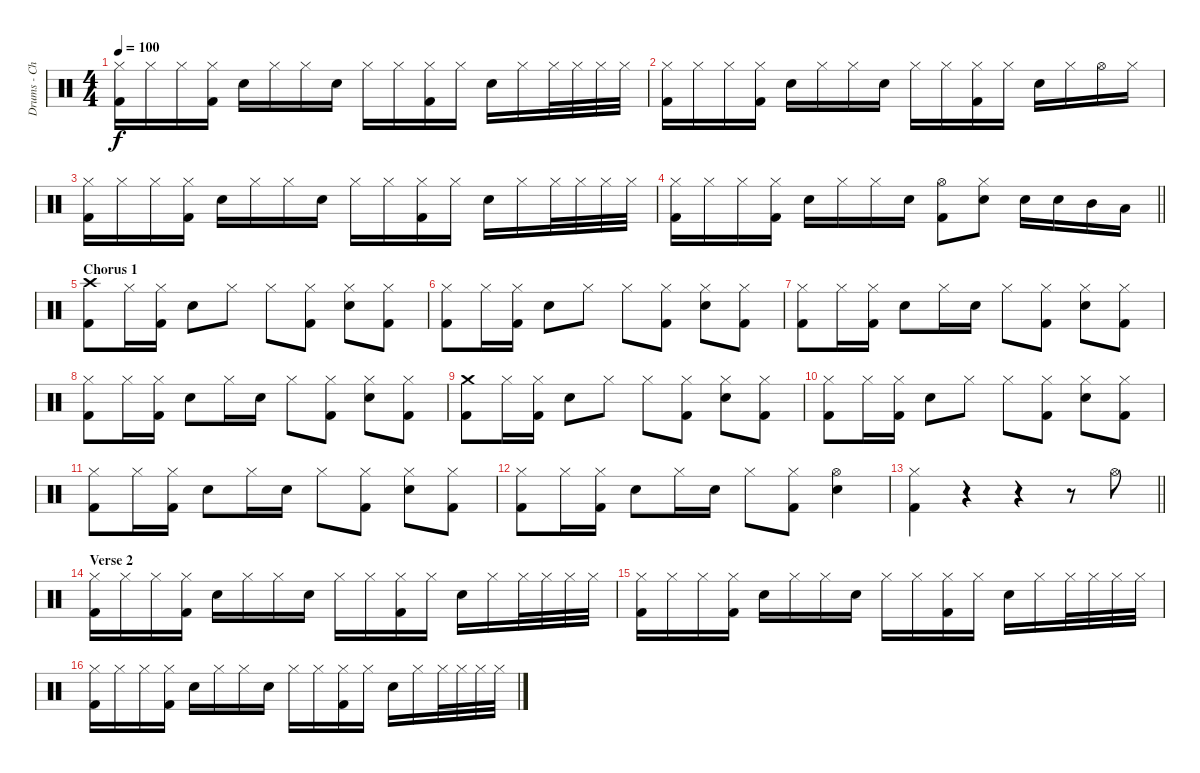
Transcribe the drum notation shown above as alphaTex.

\track ("Drums - Chad" "Drums - Ch") {instrument percussion}
\staff {score}
\articulation defaults
\ts (4 4)
\tempo 100
\clef neutral
\ks c
("Hi-Hat (closed)" "Kick (hit) 2").16{dy f} "Hi-Hat (closed)".16 "Hi-Hat (closed)".16 ("Hi-Hat (closed)" "Kick (hit) 2").16 "Electric Snare (hit)".16 "Hi-Hat (closed)".16 "Hi-Hat (closed)".16 "Electric Snare (hit)".16 "Hi-Hat (closed)".16 "Hi-Hat (closed)".16 ("Hi-Hat (closed)" "Kick (hit) 2").16 "Hi-Hat (closed)".16 "Electric Snare (hit)".16 "Hi-Hat (closed)".16 "Hi-Hat (closed)".32 "Hi-Hat (closed)".32 "Hi-Hat (closed)".32 "Hi-Hat (closed)".32 |
("Hi-Hat (closed)" "Kick (hit) 2").16 "Hi-Hat (closed)".16 "Hi-Hat (closed)".16 ("Hi-Hat (closed)" "Kick (hit) 2").16 "Electric Snare (hit)".16 "Hi-Hat (closed)".16 "Hi-Hat (closed)".16 "Electric Snare (hit)".16 "Hi-Hat (closed)".16 "Hi-Hat (closed)".16 ("Hi-Hat (closed)" "Kick (hit) 2").16 "Hi-Hat (closed)".16 "Electric Snare (hit)".16 "Hi-Hat (closed)".16 "Hi-Hat (open)".16 "Hi-Hat (closed)".16 |
("Hi-Hat (closed)" "Kick (hit) 2").16 "Hi-Hat (closed)".16 "Hi-Hat (closed)".16 ("Hi-Hat (closed)" "Kick (hit) 2").16 "Electric Snare (hit)".16 "Hi-Hat (closed)".16 "Hi-Hat (closed)".16 "Electric Snare (hit)".16 "Hi-Hat (closed)".16 "Hi-Hat (closed)".16 ("Hi-Hat (closed)" "Kick (hit) 2").16 "Hi-Hat (closed)".16 "Electric Snare (hit)".16 "Hi-Hat (closed)".16 "Hi-Hat (closed)".32 "Hi-Hat (closed)".32 "Hi-Hat (closed)".32 "Hi-Hat (closed)".32 |
\barLineRight lightlight
("Hi-Hat (closed)" "Kick (hit) 2").16 "Hi-Hat (closed)".16 "Hi-Hat (closed)".16 ("Hi-Hat (closed)" "Kick (hit) 2").16 "Electric Snare (hit)".16 "Hi-Hat (closed)".16 "Hi-Hat (closed)".16 "Electric Snare (hit)".16 ("Hi-Hat (open)" "Kick (hit) 2").8 ("Hi-Hat (closed)" "Electric Snare (hit)").8 "Electric Snare (hit)".16 "Electric Snare (hit)".16 "Mid Tom (hit)".16 "Low Tom (hit)".16 |
\section ("" "Chorus 1")
("Crash high (hit)" "Kick (hit) 2").8 "Hi-Hat (closed)".16 ("Hi-Hat (closed)" "Kick (hit) 2").16 "Electric Snare (hit)".8 "Hi-Hat (closed)".8 "Hi-Hat (closed)".8 ("Hi-Hat (closed)" "Kick (hit) 2").8 ("Hi-Hat (closed)" "Electric Snare (hit)").8 ("Hi-Hat (closed)" "Kick (hit) 2").8 |
("Hi-Hat (closed)" "Kick (hit) 2").8 "Hi-Hat (closed)".16 ("Hi-Hat (closed)" "Kick (hit) 2").16 "Electric Snare (hit)".8 "Hi-Hat (closed)".8 "Hi-Hat (closed)".8 ("Hi-Hat (closed)" "Kick (hit) 2").8 ("Hi-Hat (closed)" "Electric Snare (hit)").8 ("Hi-Hat (closed)" "Kick (hit) 2").8 |
("Hi-Hat (closed)" "Kick (hit) 2").8 "Hi-Hat (closed)".16 ("Hi-Hat (closed)" "Kick (hit) 2").16 "Electric Snare (hit)".8 "Hi-Hat (closed)".16 "Electric Snare (hit)".16 "Hi-Hat (closed)".8 ("Hi-Hat (closed)" "Kick (hit) 2").8 ("Hi-Hat (closed)" "Electric Snare (hit)").8 ("Hi-Hat (closed)" "Kick (hit) 2").8 |
("Hi-Hat (closed)" "Kick (hit) 2").8 "Hi-Hat (closed)".16 ("Hi-Hat (closed)" "Kick (hit) 2").16 "Electric Snare (hit)".8 "Hi-Hat (closed)".16 "Electric Snare (hit)".16 "Hi-Hat (closed)".8 ("Hi-Hat (closed)" "Kick (hit) 2").8 ("Hi-Hat (closed)" "Electric Snare (hit)").8 ("Hi-Hat (closed)" "Kick (hit) 2").8 |
("Crash medium (hit)" "Kick (hit) 2").8 "Hi-Hat (closed)".16 ("Hi-Hat (closed)" "Kick (hit) 2").16 "Electric Snare (hit)".8 "Hi-Hat (closed)".8 "Hi-Hat (closed)".8 ("Hi-Hat (closed)" "Kick (hit) 2").8 ("Hi-Hat (closed)" "Electric Snare (hit)").8 ("Hi-Hat (closed)" "Kick (hit) 2").8 |
("Hi-Hat (closed)" "Kick (hit) 2").8 "Hi-Hat (closed)".16 ("Hi-Hat (closed)" "Kick (hit) 2").16 "Electric Snare (hit)".8 "Hi-Hat (closed)".8 "Hi-Hat (closed)".8 ("Hi-Hat (closed)" "Kick (hit) 2").8 ("Hi-Hat (closed)" "Electric Snare (hit)").8 ("Hi-Hat (closed)" "Kick (hit) 2").8 |
("Hi-Hat (closed)" "Kick (hit) 2").8 "Hi-Hat (closed)".16 ("Hi-Hat (closed)" "Kick (hit) 2").16 "Electric Snare (hit)".8 "Hi-Hat (closed)".16 "Electric Snare (hit)".16 "Hi-Hat (closed)".8 ("Hi-Hat (closed)" "Kick (hit) 2").8 ("Hi-Hat (closed)" "Electric Snare (hit)").8 ("Hi-Hat (closed)" "Kick (hit) 2").8 |
("Hi-Hat (closed)" "Kick (hit) 2").8 "Hi-Hat (closed)".16 ("Hi-Hat (closed)" "Kick (hit) 2").16 "Electric Snare (hit)".8 "Hi-Hat (closed)".16 "Electric Snare (hit)".16 "Hi-Hat (closed)".8 ("Hi-Hat (closed)" "Kick (hit) 2").8 ("Hi-Hat (open)" "Electric Snare (hit)").4 |
\barLineRight lightlight
("Hi-Hat (closed)" "Kick (hit) 2").4 r.4 r.4 r.8 "Hi-Hat (open)".8 |
\section ("" "Verse 2")
("Hi-Hat (closed)" "Kick (hit) 2").16 "Hi-Hat (closed)".16 "Hi-Hat (closed)".16 ("Hi-Hat (closed)" "Kick (hit) 2").16 "Electric Snare (hit)".16 "Hi-Hat (closed)".16 "Hi-Hat (closed)".16 "Electric Snare (hit)".16 "Hi-Hat (closed)".16 "Hi-Hat (closed)".16 ("Hi-Hat (closed)" "Kick (hit) 2").16 "Hi-Hat (closed)".16 "Electric Snare (hit)".16 "Hi-Hat (closed)".16 "Hi-Hat (closed)".32 "Hi-Hat (closed)".32 "Hi-Hat (closed)".32 "Hi-Hat (closed)".32 |
("Hi-Hat (closed)" "Kick (hit) 2").16 "Hi-Hat (closed)".16 "Hi-Hat (closed)".16 ("Hi-Hat (closed)" "Kick (hit) 2").16 "Electric Snare (hit)".16 "Hi-Hat (closed)".16 "Hi-Hat (closed)".16 "Electric Snare (hit)".16 "Hi-Hat (closed)".16 "Hi-Hat (closed)".16 ("Hi-Hat (closed)" "Kick (hit) 2").16 "Hi-Hat (closed)".16 "Electric Snare (hit)".16 "Hi-Hat (closed)".16 "Hi-Hat (closed)".32 "Hi-Hat (closed)".32 "Hi-Hat (closed)".32 "Hi-Hat (closed)".32 |
("Hi-Hat (closed)" "Kick (hit) 2").16 "Hi-Hat (closed)".16 "Hi-Hat (closed)".16 ("Hi-Hat (closed)" "Kick (hit) 2").16 "Electric Snare (hit)".16 "Hi-Hat (closed)".16 "Hi-Hat (closed)".16 "Electric Snare (hit)".16 "Hi-Hat (closed)".16 "Hi-Hat (closed)".16 ("Hi-Hat (closed)" "Kick (hit) 2").16 "Hi-Hat (closed)".16 "Electric Snare (hit)".16 "Hi-Hat (closed)".16 "Hi-Hat (closed)".32 "Hi-Hat (closed)".32 "Hi-Hat (closed)".32 "Hi-Hat (closed)".32
